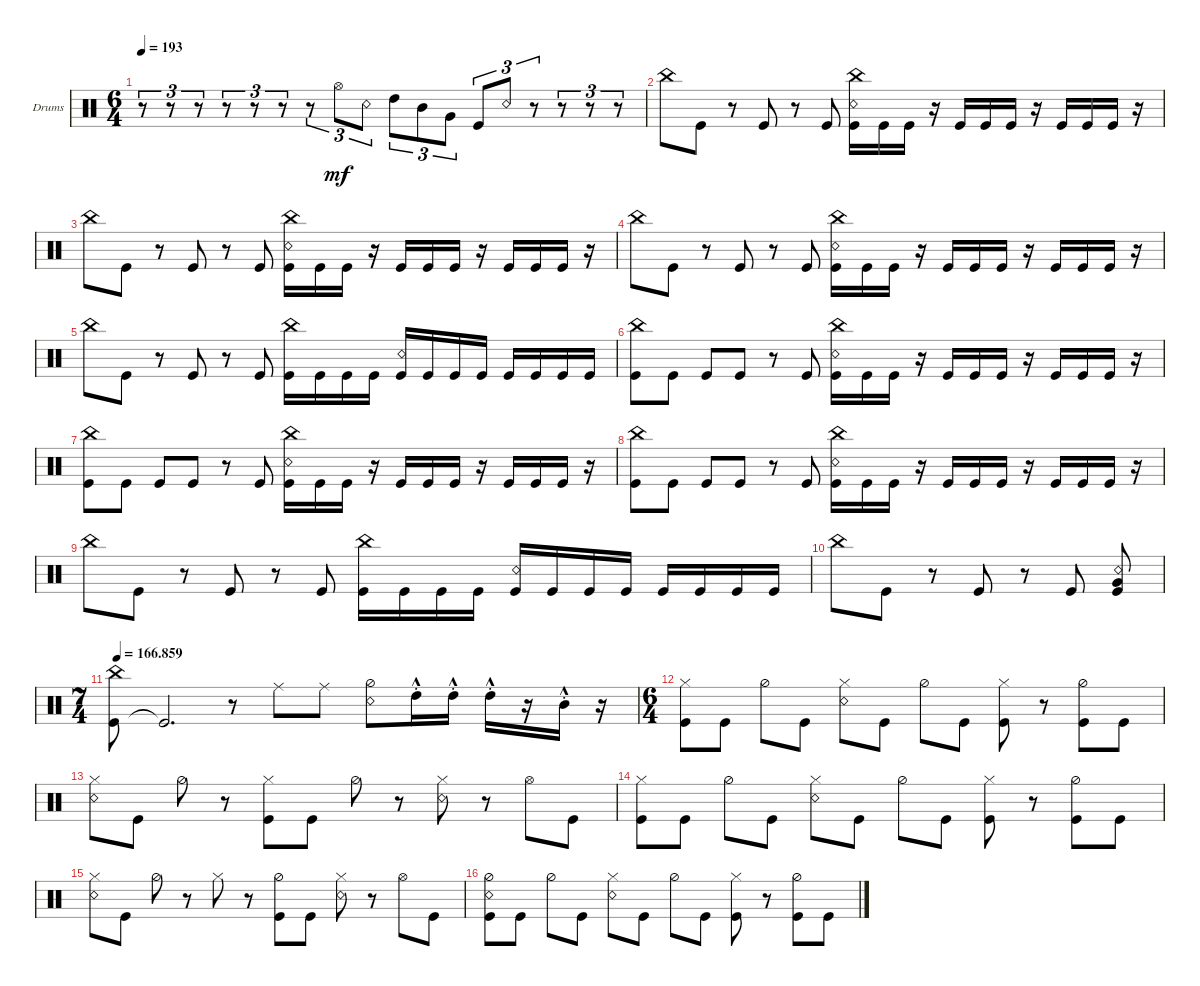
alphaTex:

\defaultSystemsLayout 4
\bracketExtendMode groupsimilarinstruments
\firstSystemTrackNameOrientation horizontal
\otherSystemsTrackNameOrientation horizontal
\track ("Drumkit" "Drums") {mute multiBarRest instrument percussion}
\staff {score}
\articulation defaults
\ts (6 4)
\tempo 193
\clef neutral
\ks c
r.8{tu (3 2) dy mf} r.8{tu (3 2)} r.8{tu (3 2)} r.8{tu (3 2)} r.8{tu (3 2)} r.8{tu (3 2)} r.8{tu (3 2)} "Hi-Hat (open)".8{tu (3 2)} "Snare (rim shot)".8{tu (3 2)} "High Tom (hit)".8{tu (3 2)} "Mid Tom (hit)".8{tu (3 2)} "Very Low Tom (hit)".8{tu (3 2)} "Kick (hit)".8{tu (3 2)} "Snare (rim shot)".8{tu (3 2)} r.8{tu (3 2)} r.8{tu (3 2)} r.8{tu (3 2)} r.8{tu (3 2)} |
\scale
0.472222 "China (hit)".8 "Kick (hit)".8 r.8 "Kick (hit)".8 r.8 "Kick (hit)".8 ("Kick (hit)" "China (hit)" "Snare (rim shot)").16 "Kick (hit)".16 "Kick (hit)".16 r.16 "Kick (hit)".16 "Kick (hit)".16 "Kick (hit)".16 r.16 "Kick (hit)".16 "Kick (hit)".16 "Kick (hit)".16 r.16 |
\scale
0.263889 "China (hit)".8 "Kick (hit)".8 r.8 "Kick (hit)".8 r.8 "Kick (hit)".8 ("Kick (hit)" "China (hit)" "Snare (rim shot)").16 "Kick (hit)".16 "Kick (hit)".16 r.16 "Kick (hit)".16 "Kick (hit)".16 "Kick (hit)".16 r.16 "Kick (hit)".16 "Kick (hit)".16 "Kick (hit)".16 r.16 |
\scale
0.263889 "China (hit)".8 "Kick (hit)".8 r.8 "Kick (hit)".8 r.8 "Kick (hit)".8 ("Kick (hit)" "China (hit)" "Snare (rim shot)").16 "Kick (hit)".16 "Kick (hit)".16 r.16 "Kick (hit)".16 "Kick (hit)".16 "Kick (hit)".16 r.16 "Kick (hit)".16 "Kick (hit)".16 "Kick (hit)".16 r.16 |
\scale
0.333333 "China (hit)".8 "Kick (hit)".8 r.8 "Kick (hit)".8 r.8 "Kick (hit)".8 ("Kick (hit)" "China (hit)").16 "Kick (hit)".16 "Kick (hit)".16 "Kick (hit)".16 ("Kick (hit)" "Snare (rim shot)").16 "Kick (hit)".16 "Kick (hit)".16 "Kick (hit)".16 "Kick (hit)".16 "Kick (hit)".16 "Kick (hit)".16 "Kick (hit)".16 |
\scale
0.333333 ("China (hit)" "Kick (hit)").8 "Kick (hit)".8 "Kick (hit)".8 "Kick (hit)".8 r.8 "Kick (hit)".8 ("Kick (hit)" "China (hit)" "Snare (rim shot)").16 "Kick (hit)".16 "Kick (hit)".16 r.16 "Kick (hit)".16 "Kick (hit)".16 "Kick (hit)".16 r.16 "Kick (hit)".16 "Kick (hit)".16 "Kick (hit)".16 r.16 |
\scale
0.333333 ("China (hit)" "Kick (hit)").8 "Kick (hit)".8 "Kick (hit)".8 "Kick (hit)".8 r.8 "Kick (hit)".8 ("Kick (hit)" "China (hit)" "Snare (rim shot)").16 "Kick (hit)".16 "Kick (hit)".16 r.16 "Kick (hit)".16 "Kick (hit)".16 "Kick (hit)".16 r.16 "Kick (hit)".16 "Kick (hit)".16 "Kick (hit)".16 r.16 |
\scale
0.333333 ("China (hit)" "Kick (hit)").8 "Kick (hit)".8 "Kick (hit)".8 "Kick (hit)".8 r.8 "Kick (hit)".8 ("Kick (hit)" "China (hit)" "Snare (rim shot)").16 "Kick (hit)".16 "Kick (hit)".16 r.16 "Kick (hit)".16 "Kick (hit)".16 "Kick (hit)".16 r.16 "Kick (hit)".16 "Kick (hit)".16 "Kick (hit)".16 r.16 |
\scale
0.333333 "China (hit)".8 "Kick (hit)".8 r.8 "Kick (hit)".8 r.8 "Kick (hit)".8 ("Kick (hit)" "China (hit)").16 "Kick (hit)".16 "Kick (hit)".16 "Kick (hit)".16 ("Kick (hit)" "Snare (rim shot)").16 "Kick (hit)".16 "Kick (hit)".16 "Kick (hit)".16 "Kick (hit)".16 "Kick (hit)".16 "Kick (hit)".16 "Kick (hit)".16 |
\scale
0.333333 "China (hit)".8 "Kick (hit)".8 r.8 "Kick (hit)".8 r.8 "Kick (hit)".8 ("Kick (hit)" "Very Low Tom (hit)" "Snare (rim shot)").8 |
\ts (7 4)
\tempo
166.859
\scale
0.333333 ("Kick (hit)" "China (hit)").8 "Kick (hit)"{t}.2{d} r.8 "Ride (middle)".8 "Ride (middle)".8 ("Snare (rim shot)" "Hi-Hat (half)").8 "High Tom (hit)"{hac st}.16 "High Tom (hit)"{hac st}.16 "High Tom (hit)"{hac st}.16 r.16 "Mid Tom (hit)"{hac st}.16 r.16 |
\ts (6 4)
\scale
0.333333 ("Kick (hit)" "Hi-Hat (closed)").8 "Kick (hit)".8 "Hi-Hat (half)".8 "Kick (hit)".8 ("Snare (rim shot)" "Hi-Hat (closed)").8 "Kick (hit)".8 "Hi-Hat (half)".8 "Kick (hit)".8 ("Kick (hit)" "Hi-Hat (closed)").8 r.8 ("Kick (hit)" "Hi-Hat (half)").8 "Kick (hit)".8 |
\scale
0.333333 ("Snare (rim shot)" "Hi-Hat (closed)").8 "Kick (hit)".8 "Hi-Hat (half)".8 r.8 ("Hi-Hat (closed)" "Kick (hit)").8 "Kick (hit)".8 "Hi-Hat (half)".8 r.8 ("Hi-Hat (closed)" "Snare (rim shot)").8 r.8 "Hi-Hat (open)".8 "Kick (hit)".8 |
\scale
0.333333 ("Kick (hit)" "Hi-Hat (closed)").8 "Kick (hit)".8 "Hi-Hat (half)".8 "Kick (hit)".8 ("Snare (rim shot)" "Hi-Hat (closed)").8 "Kick (hit)".8 "Hi-Hat (half)".8 "Kick (hit)".8 ("Kick (hit)" "Hi-Hat (closed)").8 r.8 ("Kick (hit)" "Hi-Hat (half)").8 "Kick (hit)".8 |
\scale
0.333333 ("Snare (rim shot)" "Hi-Hat (closed)").8 "Kick (hit)".8 "Hi-Hat (half)".8 r.8 "Hi-Hat (closed)".8 r.8 ("Hi-Hat (half)" "Kick (hit)").8 "Kick (hit)".8 ("Hi-Hat (closed)" "Snare (rim shot)").8 r.8 "Hi-Hat (open)".8 "Kick (hit)".8 |
\scale
0.333333 ("Kick (hit)" "Snare (rim shot)" "Hi-Hat (half)").8 "Kick (hit)".8 "Hi-Hat (half)".8 "Kick (hit)".8 ("Snare (rim shot)" "Hi-Hat (closed)").8 "Kick (hit)".8 "Hi-Hat (half)".8 "Kick (hit)".8 ("Kick (hit)" "Hi-Hat (closed)").8 r.8 ("Kick (hit)" "Hi-Hat (half)").8 "Kick (hit)".8
